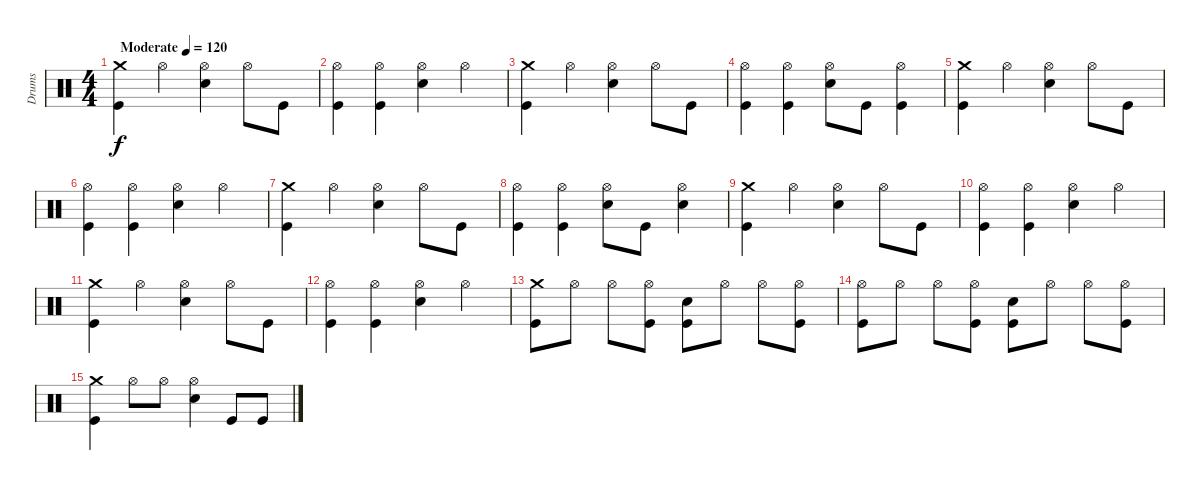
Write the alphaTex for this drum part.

\track ("Drums" "Drums") {instrument percussion}
\staff {score}
\articulation defaults
\ts (4 4)
\tempo (120 "Moderate")
\clef neutral
\ks c
("Crash medium (hit)" "Kick (hit)").4{dy f} "Hi-Hat (open)".4 ("Snare (hit) 2" "Hi-Hat (open)").4 "Hi-Hat (open)".8 "Kick (hit)".8 |
("Hi-Hat (open)" "Kick (hit)").4 ("Hi-Hat (open)" "Kick (hit)").4 ("Snare (hit) 2" "Hi-Hat (open)").4 "Hi-Hat (open)".4 |
("Crash medium (hit)" "Kick (hit)").4 "Hi-Hat (open)".4 ("Snare (hit) 2" "Hi-Hat (open)").4 "Hi-Hat (open)".8 "Kick (hit)".8 |
("Hi-Hat (open)" "Kick (hit)").4 ("Hi-Hat (open)" "Kick (hit)").4 ("Snare (hit) 2" "Hi-Hat (open)").8 "Kick (hit)".8 ("Hi-Hat (open)" "Kick (hit)").4 |
("Crash medium (hit)" "Kick (hit)").4 "Hi-Hat (open)".4 ("Snare (hit) 2" "Hi-Hat (open)").4 "Hi-Hat (open)".8 "Kick (hit)".8 |
("Hi-Hat (open)" "Kick (hit)").4 ("Hi-Hat (open)" "Kick (hit)").4 ("Snare (hit) 2" "Hi-Hat (open)").4 "Hi-Hat (open)".4 |
("Crash medium (hit)" "Kick (hit)").4 "Hi-Hat (open)".4 ("Snare (hit) 2" "Hi-Hat (open)").4 "Hi-Hat (open)".8 "Kick (hit)".8 |
("Hi-Hat (open)" "Kick (hit)").4 ("Hi-Hat (open)" "Kick (hit)").4 ("Snare (hit) 2" "Hi-Hat (open)").8 "Kick (hit)".8 ("Snare (hit) 2" "Hi-Hat (open)").4 |
("Crash medium (hit)" "Kick (hit)").4 "Hi-Hat (open)".4 ("Snare (hit) 2" "Hi-Hat (open)").4 "Hi-Hat (open)".8 "Kick (hit)".8 |
("Hi-Hat (open)" "Kick (hit)").4 ("Hi-Hat (open)" "Kick (hit)").4 ("Snare (hit) 2" "Hi-Hat (open)").4 "Hi-Hat (open)".4 |
("Crash medium (hit)" "Kick (hit)").4 "Hi-Hat (open)".4 ("Snare (hit) 2" "Hi-Hat (open)").4 "Hi-Hat (open)".8 "Kick (hit)".8 |
("Hi-Hat (open)" "Kick (hit)").4 ("Hi-Hat (open)" "Kick (hit)").4 ("Snare (hit) 2" "Hi-Hat (open)").4 "Hi-Hat (open)".4 |
("Crash medium (hit)" "Kick (hit)").8 "Hi-Hat (open)".8 "Hi-Hat (open)".8 ("Hi-Hat (open)" "Kick (hit)").8 ("Snare (hit) 2" "Kick (hit)").8 "Hi-Hat (open)".8 "Hi-Hat (open)".8 ("Hi-Hat (open)" "Kick (hit)").8 |
("Hi-Hat (open)" "Kick (hit)").8 "Hi-Hat (open)".8 "Hi-Hat (open)".8 ("Hi-Hat (open)" "Kick (hit)").8 ("Snare (hit) 2" "Kick (hit)").8 "Hi-Hat (open)".8 "Hi-Hat (open)".8 ("Hi-Hat (open)" "Kick (hit)").8 |
("Crash medium (hit)" "Kick (hit)").4 "Hi-Hat (open)".8 "Hi-Hat (open)".8 ("Snare (hit) 2" "Hi-Hat (open)").4 "Kick (hit)".8 "Kick (hit)".8
